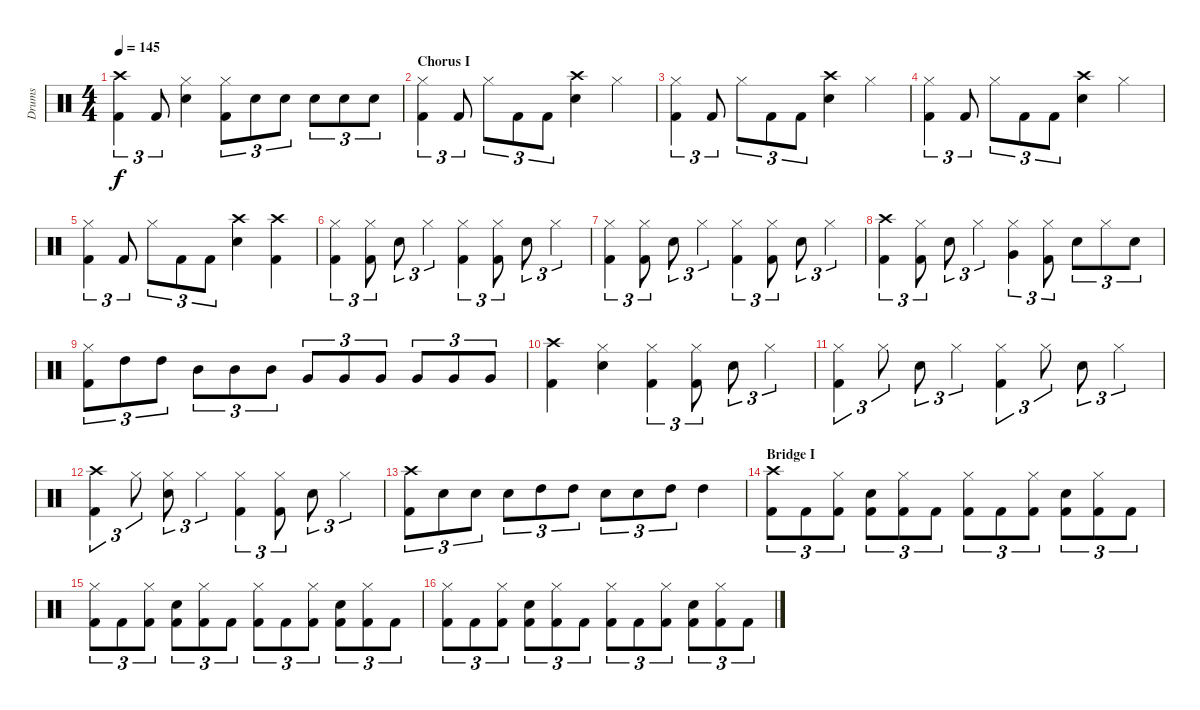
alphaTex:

\track ("Drums" "Drums") {instrument percussion}
\staff {score}
\articulation defaults
\ts (4 4)
\tempo 145
\clef neutral
\ks c
("Crash high (hit)" "Kick (hit) 2").4{tu (3 2) dy f} "Kick (hit) 2".8{tu (3 2)} ("Hi-Hat (closed)" "Snare (hit) 2").4 ("Hi-Hat (closed)" "Kick (hit) 2").8{tu (3 2)} "Snare (hit) 2".8{tu (3 2)} "Snare (hit) 2".8{tu (3 2)} "Snare (hit) 2".8{tu (3 2)} "Snare (hit) 2".8{tu (3 2)} "Snare (hit) 2".8{tu (3 2)} |
\section ("" "Chorus I")
("Hi-Hat (closed)" "Kick (hit) 2").4{tu (3 2)} "Kick (hit) 2".8{tu (3 2)} "Hi-Hat (closed)".8{tu (3 2)} "Kick (hit) 2".8{tu (3 2)} "Kick (hit) 2".8{tu (3 2)} ("Crash high (hit)" "Snare (hit) 2").4 "Hi-Hat (closed)".4 |
("Hi-Hat (closed)" "Kick (hit) 2").4{tu (3 2)} "Kick (hit) 2".8{tu (3 2)} "Hi-Hat (closed)".8{tu (3 2)} "Kick (hit) 2".8{tu (3 2)} "Kick (hit) 2".8{tu (3 2)} ("Crash high (hit)" "Snare (hit) 2").4 "Hi-Hat (closed)".4 |
("Hi-Hat (closed)" "Kick (hit) 2").4{tu (3 2)} "Kick (hit) 2".8{tu (3 2)} "Hi-Hat (closed)".8{tu (3 2)} "Kick (hit) 2".8{tu (3 2)} "Kick (hit) 2".8{tu (3 2)} ("Crash high (hit)" "Snare (hit) 2").4 "Hi-Hat (closed)".4 |
("Hi-Hat (closed)" "Kick (hit) 2").4{tu (3 2)} "Kick (hit) 2".8{tu (3 2)} "Hi-Hat (closed)".8{tu (3 2)} "Kick (hit) 2".8{tu (3 2)} "Kick (hit) 2".8{tu (3 2)} ("Crash high (hit)" "Snare (hit) 2").4 ("Crash high (hit)" "Kick (hit) 2").4 |
("Hi-Hat (closed)" "Kick (hit) 2").4{tu (3 2)} ("Hi-Hat (closed)" "Kick (hit) 2").8{tu (3 2)} "Snare (hit) 2".8{tu (3 2)} "Hi-Hat (closed)".4{tu (3 2)} ("Hi-Hat (closed)" "Kick (hit) 2").4{tu (3 2)} ("Hi-Hat (closed)" "Kick (hit) 2").8{tu (3 2)} "Snare (hit) 2".8{tu (3 2)} "Hi-Hat (closed)".4{tu (3 2)} |
("Hi-Hat (closed)" "Kick (hit) 2").4{tu (3 2)} ("Hi-Hat (closed)" "Kick (hit) 2").8{tu (3 2)} "Snare (hit) 2".8{tu (3 2)} "Hi-Hat (closed)".4{tu (3 2)} ("Hi-Hat (closed)" "Kick (hit) 2").4{tu (3 2)} ("Hi-Hat (closed)" "Kick (hit) 2").8{tu (3 2)} "Snare (hit) 2".8{tu (3 2)} "Hi-Hat (closed)".4{tu (3 2)} |
("Crash high (hit)" "Kick (hit) 2").4{tu (3 2)} ("Hi-Hat (closed)" "Kick (hit) 2").8{tu (3 2)} "Snare (hit) 2".8{tu (3 2)} "Hi-Hat (closed)".4{tu (3 2)} ("Hi-Hat (closed)" "Very Low Tom (hit)").4{tu (3 2)} ("Hi-Hat (closed)" "Kick (hit) 2").8{tu (3 2)} "Snare (hit) 2".8{tu (3 2)} "Hi-Hat (closed)".8{tu (3 2)} "Snare (hit) 2".8{tu (3 2)} |
("Hi-Hat (closed)" "Kick (hit) 2").8{tu (3 2)} "High Tom (hit)".8{tu (3 2)} "High Tom (hit)".8{tu (3 2)} "Mid Tom (hit)".8{tu (3 2)} "Mid Tom (hit)".8{tu (3 2)} "Mid Tom (hit)".8{tu (3 2)} "Very Low Tom (hit)".8{tu (3 2)} "Very Low Tom (hit)".8{tu (3 2)} "Very Low Tom (hit)".8{tu (3 2)} "Very Low Tom (hit)".8{tu (3 2)} "Very Low Tom (hit)".8{tu (3 2)} "Very Low Tom (hit)".8{tu (3 2)} |
("Crash high (hit)" "Kick (hit) 2").4 ("Hi-Hat (closed)" "Snare (hit) 2").4 ("Hi-Hat (closed)" "Kick (hit) 2").4{tu (3 2)} ("Hi-Hat (closed)" "Kick (hit) 2").8{tu (3 2)} "Snare (hit) 2".8{tu (3 2)} "Hi-Hat (closed)".4{tu (3 2)} |
("Kick (hit) 2" "Hi-Hat (closed)").4{tu (3 2)} "Hi-Hat (closed)".8{tu (3 2)} "Snare (hit) 2".8{tu (3 2)} "Hi-Hat (closed)".4{tu (3 2)} ("Hi-Hat (closed)" "Kick (hit) 2").4{tu (3 2)} "Hi-Hat (closed)".8{tu (3 2)} "Snare (hit) 2".8{tu (3 2)} "Hi-Hat (closed)".4{tu (3 2)} |
("Crash high (hit)" "Kick (hit) 2").4{tu (3 2)} "Hi-Hat (closed)".8{tu (3 2)} ("Hi-Hat (closed)" "Snare (hit) 2").8{tu (3 2)} "Hi-Hat (closed)".4{tu (3 2)} ("Hi-Hat (closed)" "Kick (hit) 2").4{tu (3 2)} ("Hi-Hat (closed)" "Kick (hit) 2").8{tu (3 2)} "Snare (hit) 2".8{tu (3 2)} "Hi-Hat (closed)".4{tu (3 2)} |
("Crash high (hit)" "Kick (hit) 2").8{tu (3 2)} "Snare (hit) 2".8{tu (3 2)} "Snare (hit) 2".8{tu (3 2)} "Snare (hit) 2".8{tu (3 2)} "High Tom (hit)".8{tu (3 2)} "High Tom (hit)".8{tu (3 2)} "Snare (hit) 2".8{tu (3 2)} "Snare (hit) 2".8{tu (3 2)} "High Tom (hit)".8{tu (3 2)} "High Tom (hit)".4 |
\section ("" "Bridge I")
("Crash high (hit)" "Kick (hit) 2").8{tu (3 2)} "Kick (hit) 2".8{tu (3 2)} ("Hi-Hat (closed)" "Kick (hit) 2").8{tu (3 2)} ("Snare (hit) 2" "Kick (hit) 2").8{tu (3 2)} ("Hi-Hat (closed)" "Kick (hit) 2").8{tu (3 2)} "Kick (hit) 2".8{tu (3 2)} ("Hi-Hat (closed)" "Kick (hit) 2").8{tu (3 2)} "Kick (hit) 2".8{tu (3 2)} ("Hi-Hat (closed)" "Kick (hit) 2").8{tu (3 2)} ("Snare (hit) 2" "Kick (hit) 2").8{tu (3 2)} ("Hi-Hat (closed)" "Kick (hit) 2").8{tu (3 2)} "Kick (hit) 2".8{tu (3 2)} |
("Hi-Hat (closed)" "Kick (hit) 2").8{tu (3 2)} "Kick (hit) 2".8{tu (3 2)} ("Hi-Hat (closed)" "Kick (hit) 2").8{tu (3 2)} ("Kick (hit) 2" "Snare (hit) 2").8{tu (3 2)} ("Hi-Hat (closed)" "Kick (hit) 2").8{tu (3 2)} "Kick (hit) 2".8{tu (3 2)} ("Hi-Hat (closed)" "Kick (hit) 2").8{tu (3 2)} "Kick (hit) 2".8{tu (3 2)} ("Hi-Hat (closed)" "Kick (hit) 2").8{tu (3 2)} ("Kick (hit) 2" "Snare (hit) 2").8{tu (3 2)} ("Hi-Hat (closed)" "Kick (hit) 2").8{tu (3 2)} "Kick (hit) 2".8{tu (3 2)} |
("Hi-Hat (closed)" "Kick (hit) 2").8{tu (3 2)} "Kick (hit) 2".8{tu (3 2)} ("Hi-Hat (closed)" "Kick (hit) 2").8{tu (3 2)} ("Kick (hit) 2" "Snare (hit) 2").8{tu (3 2)} ("Hi-Hat (closed)" "Kick (hit) 2").8{tu (3 2)} "Kick (hit) 2".8{tu (3 2)} ("Hi-Hat (closed)" "Kick (hit) 2").8{tu (3 2)} "Kick (hit) 2".8{tu (3 2)} ("Hi-Hat (closed)" "Kick (hit) 2").8{tu (3 2)} ("Kick (hit) 2" "Snare (hit) 2").8{tu (3 2)} ("Hi-Hat (closed)" "Kick (hit) 2").8{tu (3 2)} "Kick (hit) 2".8{tu (3 2)}
